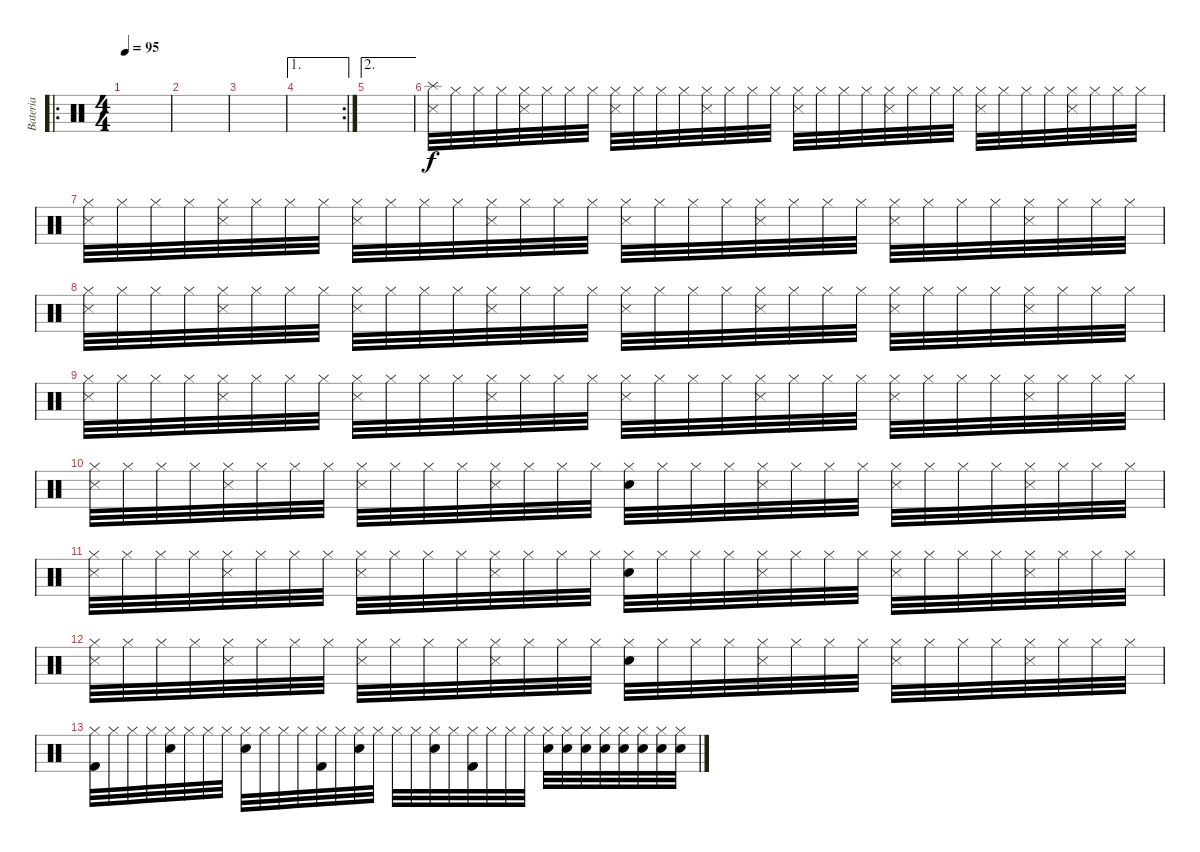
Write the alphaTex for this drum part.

\track ("Bateria" "Bateria") {instrument percussion}
\staff {score}
\articulation defaults
\ro
\ts (4 4)
\tempo 95
\clef neutral
\ks c
|
|
|
\ae 1
\rc 2
|
\ae 2
|
("Splash (hit)" "Snare (side stick) 3").32 "Hi-Hat (closed)".32 "Hi-Hat (closed)".32 "Hi-Hat (closed)".32 ("Hi-Hat (closed)" "Snare (side stick) 3").32 "Hi-Hat (closed)".32 "Hi-Hat (closed)".32 "Hi-Hat (closed)".32 ("Hi-Hat (closed)" "Snare (side stick) 3").32 "Hi-Hat (closed)".32 "Hi-Hat (closed)".32 "Hi-Hat (closed)".32 ("Hi-Hat (closed)" "Snare (side stick) 3").32 "Hi-Hat (closed)".32 "Hi-Hat (closed)".32 "Hi-Hat (closed)".32 ("Hi-Hat (closed)" "Snare (side stick) 3").32 "Hi-Hat (closed)".32 "Hi-Hat (closed)".32 "Hi-Hat (closed)".32 ("Hi-Hat (closed)" "Snare (side stick) 3").32 "Hi-Hat (closed)".32 "Hi-Hat (closed)".32 "Hi-Hat (closed)".32 ("Hi-Hat (closed)" "Snare (side stick) 3").32 "Hi-Hat (closed)".32 "Hi-Hat (closed)".32 "Hi-Hat (closed)".32 ("Hi-Hat (closed)" "Snare (side stick) 3").32 "Hi-Hat (closed)".32 "Hi-Hat (closed)".32 "Hi-Hat (closed)".32 |
("Hi-Hat (closed)" "Snare (side stick) 3").32 "Hi-Hat (closed)".32 "Hi-Hat (closed)".32 "Hi-Hat (closed)".32 ("Hi-Hat (closed)" "Snare (side stick) 3").32 "Hi-Hat (closed)".32 "Hi-Hat (closed)".32 "Hi-Hat (closed)".32 ("Hi-Hat (closed)" "Snare (side stick) 3").32 "Hi-Hat (closed)".32 "Hi-Hat (closed)".32 "Hi-Hat (closed)".32 ("Hi-Hat (closed)" "Snare (side stick) 3").32 "Hi-Hat (closed)".32 "Hi-Hat (closed)".32 "Hi-Hat (closed)".32 ("Hi-Hat (closed)" "Snare (side stick) 3").32 "Hi-Hat (closed)".32 "Hi-Hat (closed)".32 "Hi-Hat (closed)".32 ("Hi-Hat (closed)" "Snare (side stick) 3").32 "Hi-Hat (closed)".32 "Hi-Hat (closed)".32 "Hi-Hat (closed)".32 ("Hi-Hat (closed)" "Snare (side stick) 3").32 "Hi-Hat (closed)".32 "Hi-Hat (closed)".32 "Hi-Hat (closed)".32 ("Hi-Hat (closed)" "Snare (side stick) 3").32 "Hi-Hat (closed)".32 "Hi-Hat (closed)".32 "Hi-Hat (closed)".32 |
("Hi-Hat (closed)" "Snare (side stick) 3").32 "Hi-Hat (closed)".32 "Hi-Hat (closed)".32 "Hi-Hat (closed)".32 ("Hi-Hat (closed)" "Snare (side stick) 3").32 "Hi-Hat (closed)".32 "Hi-Hat (closed)".32 "Hi-Hat (closed)".32 ("Hi-Hat (closed)" "Snare (side stick) 3").32 "Hi-Hat (closed)".32 "Hi-Hat (closed)".32 "Hi-Hat (closed)".32 ("Hi-Hat (closed)" "Snare (side stick) 3").32 "Hi-Hat (closed)".32 "Hi-Hat (closed)".32 "Hi-Hat (closed)".32 ("Hi-Hat (closed)" "Snare (side stick) 3").32 "Hi-Hat (closed)".32 "Hi-Hat (closed)".32 "Hi-Hat (closed)".32 ("Hi-Hat (closed)" "Snare (side stick) 3").32 "Hi-Hat (closed)".32 "Hi-Hat (closed)".32 "Hi-Hat (closed)".32 ("Hi-Hat (closed)" "Snare (side stick) 3").32 "Hi-Hat (closed)".32 "Hi-Hat (closed)".32 "Hi-Hat (closed)".32 ("Hi-Hat (closed)" "Snare (side stick) 3").32 "Hi-Hat (closed)".32 "Hi-Hat (closed)".32 "Hi-Hat (closed)".32 |
("Hi-Hat (closed)" "Snare (side stick) 3").32 "Hi-Hat (closed)".32 "Hi-Hat (closed)".32 "Hi-Hat (closed)".32 ("Hi-Hat (closed)" "Snare (side stick) 3").32 "Hi-Hat (closed)".32 "Hi-Hat (closed)".32 "Hi-Hat (closed)".32 ("Hi-Hat (closed)" "Snare (side stick) 3").32 "Hi-Hat (closed)".32 "Hi-Hat (closed)".32 "Hi-Hat (closed)".32 ("Hi-Hat (closed)" "Snare (side stick) 3").32 "Hi-Hat (closed)".32 "Hi-Hat (closed)".32 "Hi-Hat (closed)".32 ("Hi-Hat (closed)" "Snare (side stick) 3").32 "Hi-Hat (closed)".32 "Hi-Hat (closed)".32 "Hi-Hat (closed)".32 ("Hi-Hat (closed)" "Snare (side stick) 3").32 "Hi-Hat (closed)".32 "Hi-Hat (closed)".32 "Hi-Hat (closed)".32 ("Hi-Hat (closed)" "Snare (side stick) 3").32 "Hi-Hat (closed)".32 "Hi-Hat (closed)".32 "Hi-Hat (closed)".32 ("Hi-Hat (closed)" "Snare (side stick) 3").32 "Hi-Hat (closed)".32 "Hi-Hat (closed)".32 "Hi-Hat (closed)".32 |
("Hi-Hat (closed)" "Snare (side stick) 3").32 "Hi-Hat (closed)".32 "Hi-Hat (closed)".32 "Hi-Hat (closed)".32 ("Hi-Hat (closed)" "Snare (side stick) 3").32 "Hi-Hat (closed)".32 "Hi-Hat (closed)".32 "Hi-Hat (closed)".32 ("Hi-Hat (closed)" "Snare (side stick) 3").32 "Hi-Hat (closed)".32 "Hi-Hat (closed)".32 "Hi-Hat (closed)".32 ("Hi-Hat (closed)" "Snare (side stick) 3").32 "Hi-Hat (closed)".32 "Hi-Hat (closed)".32 "Hi-Hat (closed)".32 ("Hi-Hat (closed)" "Electric Snare (hit)").32 "Hi-Hat (closed)".32 "Hi-Hat (closed)".32 "Hi-Hat (closed)".32 ("Hi-Hat (closed)" "Snare (side stick) 3").32 "Hi-Hat (closed)".32 "Hi-Hat (closed)".32 "Hi-Hat (closed)".32 ("Hi-Hat (closed)" "Snare (side stick) 3").32 "Hi-Hat (closed)".32 "Hi-Hat (closed)".32 "Hi-Hat (closed)".32 ("Hi-Hat (closed)" "Snare (side stick) 3").32 "Hi-Hat (closed)".32 "Hi-Hat (closed)".32 "Hi-Hat (closed)".32 |
("Hi-Hat (closed)" "Snare (side stick) 3").32 "Hi-Hat (closed)".32 "Hi-Hat (closed)".32 "Hi-Hat (closed)".32 ("Hi-Hat (closed)" "Snare (side stick) 3").32 "Hi-Hat (closed)".32 "Hi-Hat (closed)".32 "Hi-Hat (closed)".32 ("Hi-Hat (closed)" "Snare (side stick) 3").32 "Hi-Hat (closed)".32 "Hi-Hat (closed)".32 "Hi-Hat (closed)".32 ("Hi-Hat (closed)" "Snare (side stick) 3").32 "Hi-Hat (closed)".32 "Hi-Hat (closed)".32 "Hi-Hat (closed)".32 ("Hi-Hat (closed)" "Electric Snare (hit)").32 "Hi-Hat (closed)".32 "Hi-Hat (closed)".32 "Hi-Hat (closed)".32 ("Hi-Hat (closed)" "Snare (side stick) 3").32 "Hi-Hat (closed)".32 "Hi-Hat (closed)".32 "Hi-Hat (closed)".32 ("Hi-Hat (closed)" "Snare (side stick) 3").32 "Hi-Hat (closed)".32 "Hi-Hat (closed)".32 "Hi-Hat (closed)".32 ("Hi-Hat (closed)" "Snare (side stick) 3").32 "Hi-Hat (closed)".32 "Hi-Hat (closed)".32 "Hi-Hat (closed)".32 |
("Hi-Hat (closed)" "Snare (side stick) 3").32 "Hi-Hat (closed)".32 "Hi-Hat (closed)".32 "Hi-Hat (closed)".32 ("Hi-Hat (closed)" "Snare (side stick) 3").32 "Hi-Hat (closed)".32 "Hi-Hat (closed)".32 "Hi-Hat (closed)".32 ("Hi-Hat (closed)" "Snare (side stick) 3").32 "Hi-Hat (closed)".32 "Hi-Hat (closed)".32 "Hi-Hat (closed)".32 ("Hi-Hat (closed)" "Snare (side stick) 3").32 "Hi-Hat (closed)".32 "Hi-Hat (closed)".32 "Hi-Hat (closed)".32 ("Hi-Hat (closed)" "Electric Snare (hit)").32 "Hi-Hat (closed)".32 "Hi-Hat (closed)".32 "Hi-Hat (closed)".32 ("Hi-Hat (closed)" "Snare (side stick) 3").32 "Hi-Hat (closed)".32 "Hi-Hat (closed)".32 "Hi-Hat (closed)".32 ("Hi-Hat (closed)" "Snare (side stick) 3").32 "Hi-Hat (closed)".32 "Hi-Hat (closed)".32 "Hi-Hat (closed)".32 ("Hi-Hat (closed)" "Snare (side stick) 3").32 "Hi-Hat (closed)".32 "Hi-Hat (closed)".32 "Hi-Hat (closed)".32 |
("Hi-Hat (closed)" "Kick (hit) 2").32 "Hi-Hat (closed)".32 "Hi-Hat (closed)".32 "Hi-Hat (closed)".32 ("Hi-Hat (closed)" "Electric Snare (hit)").32 "Hi-Hat (closed)".32 "Hi-Hat (closed)".32 "Hi-Hat (closed)".32 ("Hi-Hat (closed)" "Electric Snare (hit)").32 "Hi-Hat (closed)".32 "Hi-Hat (closed)".32 "Hi-Hat (closed)".32 ("Hi-Hat (closed)" "Kick (hit) 2").32 "Hi-Hat (closed)".32 ("Hi-Hat (closed)" "Electric Snare (hit)").32 "Hi-Hat (closed)".32 "Hi-Hat (closed)".32 "Hi-Hat (closed)".32 ("Hi-Hat (closed)" "Electric Snare (hit)").32 "Hi-Hat (closed)".32 ("Hi-Hat (closed)" "Kick (hit) 2").32 "Hi-Hat (closed)".32 "Hi-Hat (closed)".32 "Hi-Hat (closed)".32 ("Hi-Hat (closed)" "Electric Snare (hit)").32 ("Hi-Hat (closed)" "Electric Snare (hit)").32 ("Hi-Hat (closed)" "Electric Snare (hit)").32 ("Hi-Hat (closed)" "Electric Snare (hit)").32 ("Hi-Hat (closed)" "Electric Snare (hit)").32 ("Hi-Hat (closed)" "Electric Snare (hit)").32 ("Hi-Hat (closed)" "Electric Snare (hit)").32 ("Hi-Hat (closed)" "Electric Snare (hit)").32
